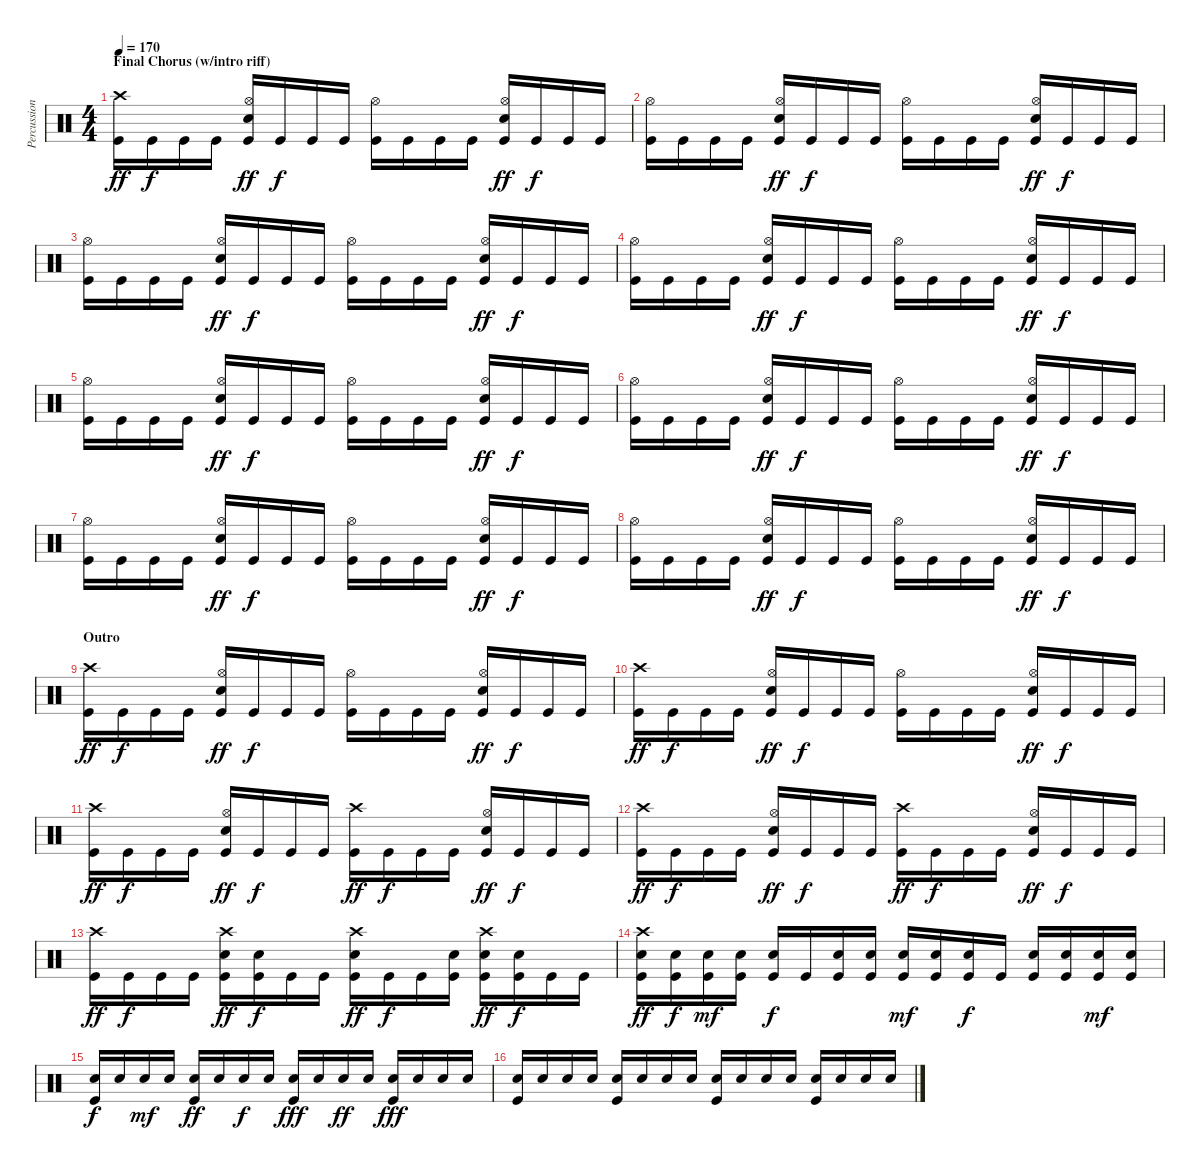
\track ("Percussion" "Percussion") {instrument percussion}
\staff {score}
\articulation defaults
\ts (4 4)
\section ("" "Final Chorus (w/intro riff)")
\tempo 170
\clef neutral
\ks c
("Crash high (hit)" "Kick (hit)").16{dy ff} "Kick (hit)".16{dy f} "Kick (hit)".16 "Kick (hit)".16 ("Hi-Hat (open)" "Snare (hit) 2" "Kick (hit)").16{dy ff} "Kick (hit)".16{dy f} "Kick (hit)".16 "Kick (hit)".16 ("Hi-Hat (open)" "Kick (hit)").16 "Kick (hit)".16 "Kick (hit)".16 "Kick (hit)".16 ("Hi-Hat (open)" "Snare (hit) 2" "Kick (hit)").16{dy ff} "Kick (hit)".16{dy f} "Kick (hit)".16 "Kick (hit)".16 |
("Hi-Hat (open)" "Kick (hit)").16 "Kick (hit)".16 "Kick (hit)".16 "Kick (hit)".16 ("Hi-Hat (open)" "Snare (hit) 2" "Kick (hit)").16{dy ff} "Kick (hit)".16{dy f} "Kick (hit)".16 "Kick (hit)".16 ("Hi-Hat (open)" "Kick (hit)").16 "Kick (hit)".16 "Kick (hit)".16 "Kick (hit)".16 ("Hi-Hat (open)" "Snare (hit) 2" "Kick (hit)").16{dy ff} "Kick (hit)".16{dy f} "Kick (hit)".16 "Kick (hit)".16 |
("Hi-Hat (open)" "Kick (hit)").16 "Kick (hit)".16 "Kick (hit)".16 "Kick (hit)".16 ("Hi-Hat (open)" "Snare (hit) 2" "Kick (hit)").16{dy ff} "Kick (hit)".16{dy f} "Kick (hit)".16 "Kick (hit)".16 ("Hi-Hat (open)" "Kick (hit)").16 "Kick (hit)".16 "Kick (hit)".16 "Kick (hit)".16 ("Hi-Hat (open)" "Snare (hit) 2" "Kick (hit)").16{dy ff} "Kick (hit)".16{dy f} "Kick (hit)".16 "Kick (hit)".16 |
("Hi-Hat (open)" "Kick (hit)").16 "Kick (hit)".16 "Kick (hit)".16 "Kick (hit)".16 ("Hi-Hat (open)" "Snare (hit) 2" "Kick (hit)").16{dy ff} "Kick (hit)".16{dy f} "Kick (hit)".16 "Kick (hit)".16 ("Hi-Hat (open)" "Kick (hit)").16 "Kick (hit)".16 "Kick (hit)".16 "Kick (hit)".16 ("Hi-Hat (open)" "Snare (hit) 2" "Kick (hit)").16{dy ff} "Kick (hit)".16{dy f} "Kick (hit)".16 "Kick (hit)".16 |
("Hi-Hat (open)" "Kick (hit)").16 "Kick (hit)".16 "Kick (hit)".16 "Kick (hit)".16 ("Hi-Hat (open)" "Snare (hit) 2" "Kick (hit)").16{dy ff} "Kick (hit)".16{dy f} "Kick (hit)".16 "Kick (hit)".16 ("Hi-Hat (open)" "Kick (hit)").16 "Kick (hit)".16 "Kick (hit)".16 "Kick (hit)".16 ("Hi-Hat (open)" "Snare (hit) 2" "Kick (hit)").16{dy ff} "Kick (hit)".16{dy f} "Kick (hit)".16 "Kick (hit)".16 |
("Hi-Hat (open)" "Kick (hit)").16 "Kick (hit)".16 "Kick (hit)".16 "Kick (hit)".16 ("Hi-Hat (open)" "Snare (hit) 2" "Kick (hit)").16{dy ff} "Kick (hit)".16{dy f} "Kick (hit)".16 "Kick (hit)".16 ("Hi-Hat (open)" "Kick (hit)").16 "Kick (hit)".16 "Kick (hit)".16 "Kick (hit)".16 ("Hi-Hat (open)" "Snare (hit) 2" "Kick (hit)").16{dy ff} "Kick (hit)".16{dy f} "Kick (hit)".16 "Kick (hit)".16 |
("Hi-Hat (open)" "Kick (hit)").16 "Kick (hit)".16 "Kick (hit)".16 "Kick (hit)".16 ("Hi-Hat (open)" "Snare (hit) 2" "Kick (hit)").16{dy ff} "Kick (hit)".16{dy f} "Kick (hit)".16 "Kick (hit)".16 ("Hi-Hat (open)" "Kick (hit)").16 "Kick (hit)".16 "Kick (hit)".16 "Kick (hit)".16 ("Hi-Hat (open)" "Snare (hit) 2" "Kick (hit)").16{dy ff} "Kick (hit)".16{dy f} "Kick (hit)".16 "Kick (hit)".16 |
("Hi-Hat (open)" "Kick (hit)").16 "Kick (hit)".16 "Kick (hit)".16 "Kick (hit)".16 ("Hi-Hat (open)" "Snare (hit) 2" "Kick (hit)").16{dy ff} "Kick (hit)".16{dy f} "Kick (hit)".16 "Kick (hit)".16 ("Hi-Hat (open)" "Kick (hit)").16 "Kick (hit)".16 "Kick (hit)".16 "Kick (hit)".16 ("Hi-Hat (open)" "Snare (hit) 2" "Kick (hit)").16{dy ff} "Kick (hit)".16{dy f} "Kick (hit)".16 "Kick (hit)".16 |
\section ("" "Outro")
("Crash high (hit)" "Kick (hit)").16{dy ff} "Kick (hit)".16{dy f} "Kick (hit)".16 "Kick (hit)".16 ("Hi-Hat (open)" "Snare (hit) 2" "Kick (hit)").16{dy ff} "Kick (hit)".16{dy f} "Kick (hit)".16 "Kick (hit)".16 ("Hi-Hat (open)" "Kick (hit)").16 "Kick (hit)".16 "Kick (hit)".16 "Kick (hit)".16 ("Hi-Hat (open)" "Snare (hit) 2" "Kick (hit)").16{dy ff} "Kick (hit)".16{dy f} "Kick (hit)".16 "Kick (hit)".16 |
("Crash high (hit)" "Kick (hit)").16{dy ff} "Kick (hit)".16{dy f} "Kick (hit)".16 "Kick (hit)".16 ("Hi-Hat (open)" "Snare (hit) 2" "Kick (hit)").16{dy ff} "Kick (hit)".16{dy f} "Kick (hit)".16 "Kick (hit)".16 ("Hi-Hat (open)" "Kick (hit)").16 "Kick (hit)".16 "Kick (hit)".16 "Kick (hit)".16 ("Hi-Hat (open)" "Snare (hit) 2" "Kick (hit)").16{dy ff} "Kick (hit)".16{dy f} "Kick (hit)".16 "Kick (hit)".16 |
("Crash high (hit)" "Kick (hit)").16{dy ff} "Kick (hit)".16{dy f} "Kick (hit)".16 "Kick (hit)".16 ("Hi-Hat (open)" "Snare (hit) 2" "Kick (hit)").16{dy ff} "Kick (hit)".16{dy f} "Kick (hit)".16 "Kick (hit)".16 ("Crash high (hit)" "Kick (hit)").16{dy ff} "Kick (hit)".16{dy f} "Kick (hit)".16 "Kick (hit)".16 ("Hi-Hat (open)" "Snare (hit) 2" "Kick (hit)").16{dy ff} "Kick (hit)".16{dy f} "Kick (hit)".16 "Kick (hit)".16 |
("Crash high (hit)" "Kick (hit)").16{dy ff} "Kick (hit)".16{dy f} "Kick (hit)".16 "Kick (hit)".16 ("Hi-Hat (open)" "Snare (hit) 2" "Kick (hit)").16{dy ff} "Kick (hit)".16{dy f} "Kick (hit)".16 "Kick (hit)".16 ("Crash high (hit)" "Kick (hit)").16{dy ff} "Kick (hit)".16{dy f} "Kick (hit)".16 "Kick (hit)".16 ("Hi-Hat (open)" "Snare (hit) 2" "Kick (hit)").16{dy ff} "Kick (hit)".16{dy f} "Kick (hit)".16 "Kick (hit)".16 |
("Crash high (hit)" "Kick (hit)").16{dy ff} "Kick (hit)".16{dy f} "Kick (hit)".16 "Kick (hit)".16 ("Crash high (hit)" "Snare (hit) 2" "Kick (hit)").16{dy ff} ("Snare (hit) 2" "Kick (hit)").16{dy f} "Kick (hit)".16 "Kick (hit)".16 ("Crash high (hit)" "Snare (hit) 2" "Kick (hit)").16{dy ff} "Kick (hit)".16{dy f} "Kick (hit)".16 ("Snare (hit) 2" "Kick (hit)").16 ("Crash high (hit)" "Snare (hit) 2" "Kick (hit)").16{dy ff} ("Snare (hit) 2" "Kick (hit)").16{dy f} "Kick (hit)".16 "Kick (hit)".16 |
("Crash high (hit)" "Snare (hit) 2" "Kick (hit)").16{dy ff} ("Snare (hit) 2" "Kick (hit)").16{dy f} ("Snare (hit) 2" "Kick (hit)").16{dy mf} ("Snare (hit) 2" "Kick (hit)").16 ("Snare (hit) 2" "Kick (hit)").16{dy f} "Kick (hit)".16 ("Snare (hit) 2" "Kick (hit)").16 ("Snare (hit) 2" "Kick (hit)").16 ("Snare (hit) 2" "Kick (hit)").16{dy mf} ("Snare (hit) 2" "Kick (hit)").16 ("Snare (hit) 2" "Kick (hit)").16{dy f} "Kick (hit)".16 ("Snare (hit) 2" "Kick (hit)").16 ("Snare (hit) 2" "Kick (hit)").16 ("Snare (hit) 2" "Kick (hit)").16{dy mf} ("Snare (hit) 2" "Kick (hit)").16 |
("Snare (hit) 2" "Kick (hit)").16{dy f} "Snare (hit) 2".16 "Snare (hit) 2".16{dy mf} "Snare (hit) 2".16 ("Snare (hit) 2" "Kick (hit)").16{dy ff} "Snare (hit) 2".16 "Snare (hit) 2".16{dy f} "Snare (hit) 2".16 ("Snare (hit) 2" "Kick (hit)").16{dy fff} "Snare (hit) 2".16 "Snare (hit) 2".16{dy ff} "Snare (hit) 2".16 ("Snare (hit) 2" "Kick (hit)").16{dy fff} "Snare (hit) 2".16 "Snare (hit) 2".16 "Snare (hit) 2".16 |
("Snare (hit) 2" "Kick (hit)").16 "Snare (hit) 2".16 "Snare (hit) 2".16 "Snare (hit) 2".16 ("Snare (hit) 2" "Kick (hit)").16 "Snare (hit) 2".16 "Snare (hit) 2".16 "Snare (hit) 2".16 ("Snare (hit) 2" "Kick (hit)").16 "Snare (hit) 2".16 "Snare (hit) 2".16 "Snare (hit) 2".16 ("Snare (hit) 2" "Kick (hit)").16 "Snare (hit) 2".16 "Snare (hit) 2".16 "Snare (hit) 2".16
